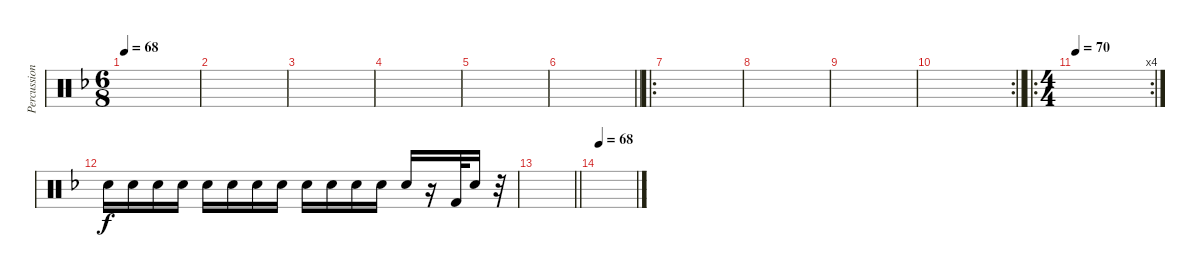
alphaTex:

\track ("Percussion" "Percussion") {instrument percussion}
\staff {score}
\articulation defaults
\ts (6 8)
\tempo 68
\clef neutral
\ks f
|
|
|
|
|
\barLineRight lightlight
|
\ro
|
|
|
\rc 2
\barLineRight lightlight
|
\ro
\rc 4
\ts (4 4)
\tempo 70
|
"Electric Snare (hit)".16 "Electric Snare (hit)".16 "Electric Snare (hit)".16 "Electric Snare (hit)".16 "Electric Snare (hit)".16 "Electric Snare (hit)".16 "Electric Snare (hit)".16 "Electric Snare (hit)".16 "Electric Snare (hit)".16 "Electric Snare (hit)".16 "Electric Snare (hit)".16 "Electric Snare (hit)".16 "Electric Snare (hit)".16 r.16 "Kick (hit) 2".32 "Electric Snare (hit)".16 r.32 |
\barLineRight lightlight
|
\tempo 68
